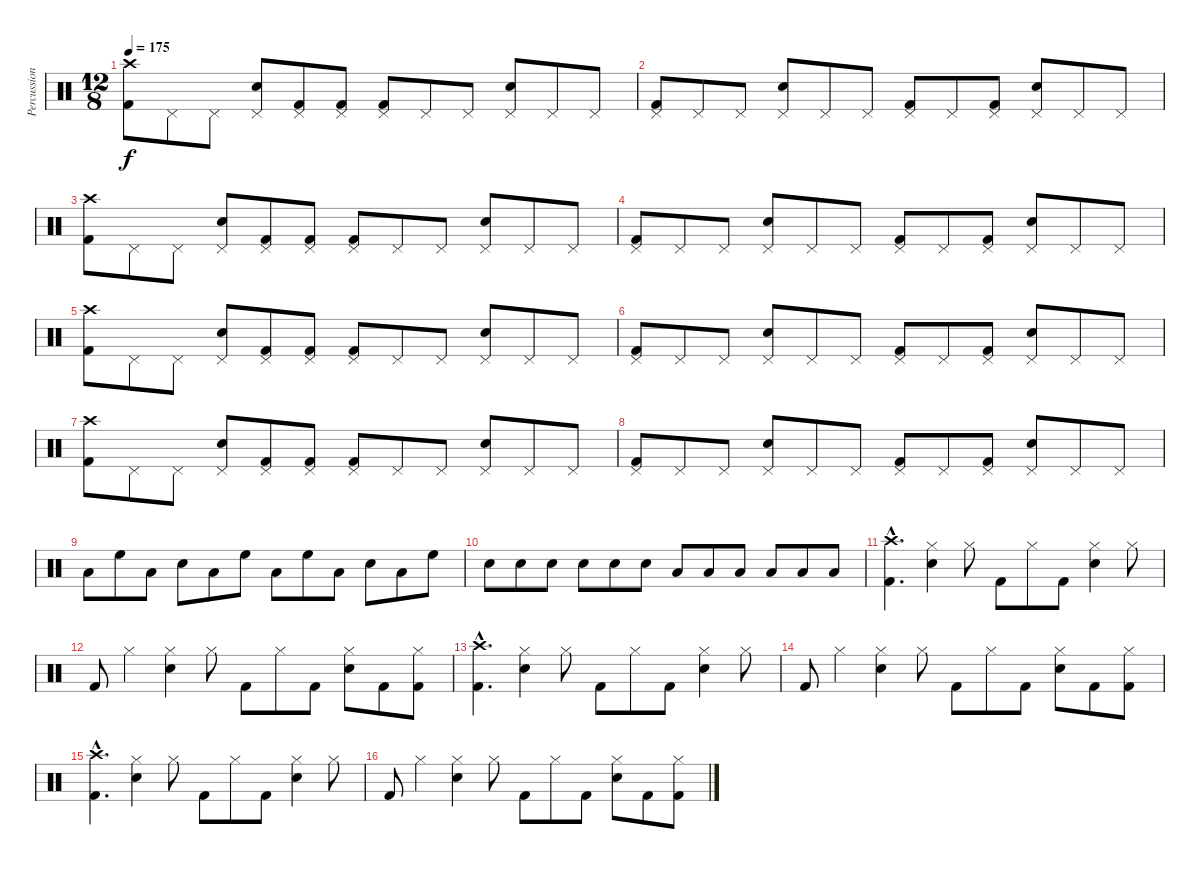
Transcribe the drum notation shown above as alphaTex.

\track ("Percussion" "Percussion") {instrument percussion}
\staff {score}
\articulation defaults
\ts (12 8)
\tempo 175
\clef neutral
\ks c
("Kick (hit) 2" "Crash high (hit)").8{dy f} "Pedal Hi-Hat (hit)".8 "Pedal Hi-Hat (hit)".8 ("Snare (hit) 2" "Pedal Hi-Hat (hit)").8 ("Kick (hit) 2" "Pedal Hi-Hat (hit)").8 ("Kick (hit) 2" "Pedal Hi-Hat (hit)").8 ("Kick (hit) 2" "Pedal Hi-Hat (hit)").8 "Pedal Hi-Hat (hit)".8 "Pedal Hi-Hat (hit)".8 ("Snare (hit) 2" "Pedal Hi-Hat (hit)").8 "Pedal Hi-Hat (hit)".8 "Pedal Hi-Hat (hit)".8 |
("Kick (hit) 2" "Pedal Hi-Hat (hit)").8 "Pedal Hi-Hat (hit)".8 "Pedal Hi-Hat (hit)".8 ("Snare (hit) 2" "Pedal Hi-Hat (hit)").8 "Pedal Hi-Hat (hit)".8 "Pedal Hi-Hat (hit)".8 ("Kick (hit) 2" "Pedal Hi-Hat (hit)").8 "Pedal Hi-Hat (hit)".8 ("Kick (hit) 2" "Pedal Hi-Hat (hit)").8 ("Snare (hit) 2" "Pedal Hi-Hat (hit)").8 "Pedal Hi-Hat (hit)".8 "Pedal Hi-Hat (hit)".8 |
("Kick (hit) 2" "Crash high (hit)").8 "Pedal Hi-Hat (hit)".8 "Pedal Hi-Hat (hit)".8 ("Snare (hit) 2" "Pedal Hi-Hat (hit)").8 ("Kick (hit) 2" "Pedal Hi-Hat (hit)").8 ("Kick (hit) 2" "Pedal Hi-Hat (hit)").8 ("Kick (hit) 2" "Pedal Hi-Hat (hit)").8 "Pedal Hi-Hat (hit)".8 "Pedal Hi-Hat (hit)".8 ("Snare (hit) 2" "Pedal Hi-Hat (hit)").8 "Pedal Hi-Hat (hit)".8 "Pedal Hi-Hat (hit)".8 |
("Kick (hit) 2" "Pedal Hi-Hat (hit)").8 "Pedal Hi-Hat (hit)".8 "Pedal Hi-Hat (hit)".8 ("Snare (hit) 2" "Pedal Hi-Hat (hit)").8 "Pedal Hi-Hat (hit)".8 "Pedal Hi-Hat (hit)".8 ("Kick (hit) 2" "Pedal Hi-Hat (hit)").8 "Pedal Hi-Hat (hit)".8 ("Kick (hit) 2" "Pedal Hi-Hat (hit)").8 ("Snare (hit) 2" "Pedal Hi-Hat (hit)").8 "Pedal Hi-Hat (hit)".8 "Pedal Hi-Hat (hit)".8 |
("Kick (hit) 2" "Crash high (hit)").8 "Pedal Hi-Hat (hit)".8 "Pedal Hi-Hat (hit)".8 ("Snare (hit) 2" "Pedal Hi-Hat (hit)").8 ("Kick (hit) 2" "Pedal Hi-Hat (hit)").8 ("Kick (hit) 2" "Pedal Hi-Hat (hit)").8 ("Kick (hit) 2" "Pedal Hi-Hat (hit)").8 "Pedal Hi-Hat (hit)".8 "Pedal Hi-Hat (hit)".8 ("Snare (hit) 2" "Pedal Hi-Hat (hit)").8 "Pedal Hi-Hat (hit)".8 "Pedal Hi-Hat (hit)".8 |
("Kick (hit) 2" "Pedal Hi-Hat (hit)").8 "Pedal Hi-Hat (hit)".8 "Pedal Hi-Hat (hit)".8 ("Snare (hit) 2" "Pedal Hi-Hat (hit)").8 "Pedal Hi-Hat (hit)".8 "Pedal Hi-Hat (hit)".8 ("Kick (hit) 2" "Pedal Hi-Hat (hit)").8 "Pedal Hi-Hat (hit)".8 ("Kick (hit) 2" "Pedal Hi-Hat (hit)").8 ("Snare (hit) 2" "Pedal Hi-Hat (hit)").8 "Pedal Hi-Hat (hit)".8 "Pedal Hi-Hat (hit)".8 |
("Kick (hit) 2" "Crash high (hit)").8 "Pedal Hi-Hat (hit)".8 "Pedal Hi-Hat (hit)".8 ("Snare (hit) 2" "Pedal Hi-Hat (hit)").8 ("Kick (hit) 2" "Pedal Hi-Hat (hit)").8 ("Kick (hit) 2" "Pedal Hi-Hat (hit)").8 ("Kick (hit) 2" "Pedal Hi-Hat (hit)").8 "Pedal Hi-Hat (hit)".8 "Pedal Hi-Hat (hit)".8 ("Snare (hit) 2" "Pedal Hi-Hat (hit)").8 "Pedal Hi-Hat (hit)".8 "Pedal Hi-Hat (hit)".8 |
("Kick (hit) 2" "Pedal Hi-Hat (hit)").8 "Pedal Hi-Hat (hit)".8 "Pedal Hi-Hat (hit)".8 ("Snare (hit) 2" "Pedal Hi-Hat (hit)").8 "Pedal Hi-Hat (hit)".8 "Pedal Hi-Hat (hit)".8 ("Kick (hit) 2" "Pedal Hi-Hat (hit)").8 "Pedal Hi-Hat (hit)".8 ("Kick (hit) 2" "Pedal Hi-Hat (hit)").8 ("Snare (hit) 2" "Pedal Hi-Hat (hit)").8 "Pedal Hi-Hat (hit)".8 "Pedal Hi-Hat (hit)".8 |
"Low Tom (hit)".8 "High Floor Tom (hit)".8 "Low Tom (hit)".8 "Snare (hit) 2".8 "Low Tom (hit)".8 "High Floor Tom (hit)".8 "Low Tom (hit)".8 "High Floor Tom (hit)".8 "Low Tom (hit)".8 "Snare (hit) 2".8 "Low Tom (hit)".8 "High Floor Tom (hit)".8 |
"Snare (hit) 2".8 "Snare (hit) 2".8 "Snare (hit) 2".8 "Snare (hit) 2".8 "Snare (hit) 2".8 "Snare (hit) 2".8 "Low Tom (hit)".8 "Low Tom (hit)".8 "Low Tom (hit)".8 "Low Floor Tom (hit)".8 "Low Floor Tom (hit)".8 "Low Floor Tom (hit)".8 |
("Kick (hit) 2"{hac} "Crash high (hit)"{hac}).4{d} ("Snare (hit) 2" "Hi-Hat (closed)").4 "Hi-Hat (closed)".8 "Kick (hit) 2".8 "Hi-Hat (closed)".8 "Kick (hit) 2".8 ("Snare (hit) 2" "Hi-Hat (closed)").4 "Hi-Hat (closed)".8 |
"Kick (hit) 2".8 "Hi-Hat (closed)".4 ("Snare (hit) 2" "Hi-Hat (closed)").4 "Hi-Hat (closed)".8 "Kick (hit) 2".8 "Hi-Hat (closed)".8 "Kick (hit) 2".8 ("Snare (hit) 2" "Hi-Hat (closed)").8 "Kick (hit) 2".8 ("Kick (hit) 2" "Hi-Hat (closed)").8 |
("Kick (hit) 2"{hac} "Crash high (hit)"{hac}).4{d} ("Snare (hit) 2" "Hi-Hat (closed)").4 "Hi-Hat (closed)".8 "Kick (hit) 2".8 "Hi-Hat (closed)".8 "Kick (hit) 2".8 ("Snare (hit) 2" "Hi-Hat (closed)").4 "Hi-Hat (closed)".8 |
"Kick (hit) 2".8 "Hi-Hat (closed)".4 ("Snare (hit) 2" "Hi-Hat (closed)").4 "Hi-Hat (closed)".8 "Kick (hit) 2".8 "Hi-Hat (closed)".8 "Kick (hit) 2".8 ("Snare (hit) 2" "Hi-Hat (closed)").8 "Kick (hit) 2".8 ("Kick (hit) 2" "Hi-Hat (closed)").8 |
("Kick (hit) 2"{hac} "Crash high (hit)"{hac}).4{d} ("Snare (hit) 2" "Hi-Hat (closed)").4 "Hi-Hat (closed)".8 "Kick (hit) 2".8 "Hi-Hat (closed)".8 "Kick (hit) 2".8 ("Snare (hit) 2" "Hi-Hat (closed)").4 "Hi-Hat (closed)".8 |
"Kick (hit) 2".8 "Hi-Hat (closed)".4 ("Snare (hit) 2" "Hi-Hat (closed)").4 "Hi-Hat (closed)".8 "Kick (hit) 2".8 "Hi-Hat (closed)".8 "Kick (hit) 2".8 ("Snare (hit) 2" "Hi-Hat (closed)").8 "Kick (hit) 2".8 ("Kick (hit) 2" "Hi-Hat (closed)").8
